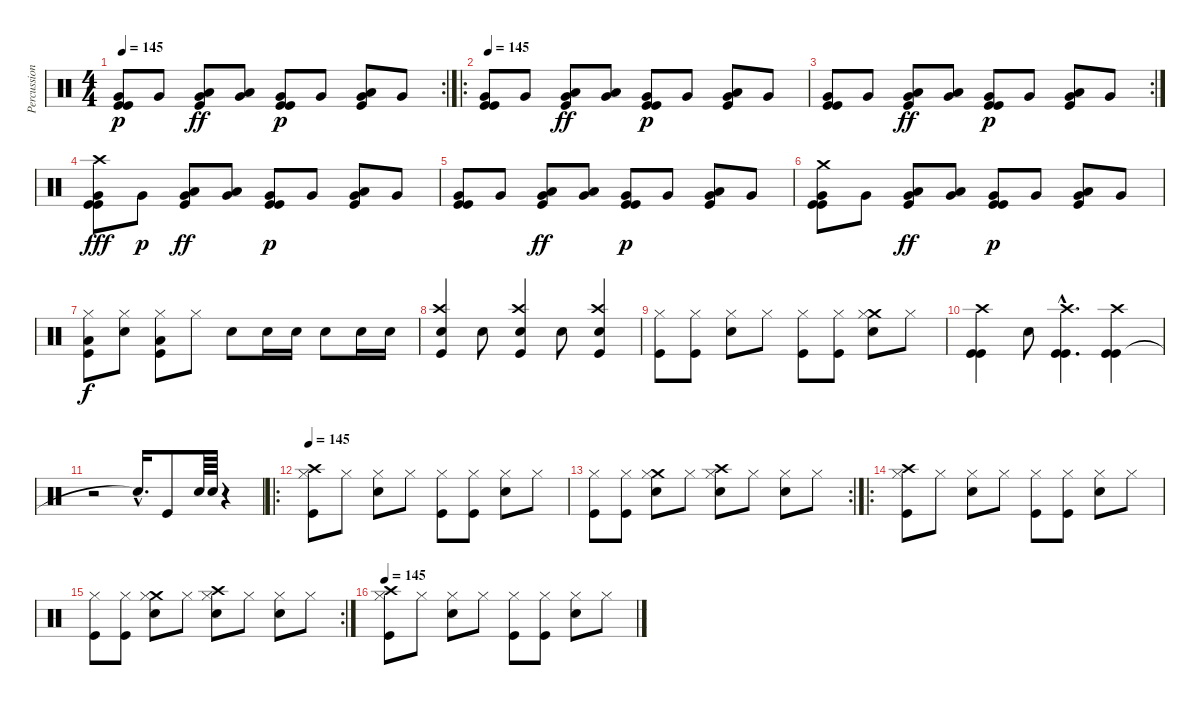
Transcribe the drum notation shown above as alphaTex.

\track ("Percussions" "Percussion") {instrument percussion}
\staff {score}
\articulation defaults
\rc 2
\ts (4 4)
\tempo 145
\clef neutral
\ks c
("Very Low Tom (hit)" "Kick (hit)" "Kick (hit)").8{dy p} "Very Low Tom (hit)".8 ("Very Low Tom (hit)" "Kick (hit)" "Low Tom (hit)").8{dy ff} ("Very Low Tom (hit)" "Low Tom (hit)").8 ("Very Low Tom (hit)" "Kick (hit)" "Kick (hit)").8{dy p} "Very Low Tom (hit)".8 ("Very Low Tom (hit)" "Kick (hit)" "Low Tom (hit)").8 "Very Low Tom (hit)".8 |
\ro
\tempo 145
("Very Low Tom (hit)" "Kick (hit)" "Kick (hit)").8 "Very Low Tom (hit)".8 ("Very Low Tom (hit)" "Kick (hit)" "Low Tom (hit)").8{dy ff} ("Very Low Tom (hit)" "Low Tom (hit)").8 ("Very Low Tom (hit)" "Kick (hit)" "Kick (hit)").8{dy p} "Very Low Tom (hit)".8 ("Very Low Tom (hit)" "Kick (hit)" "Low Tom (hit)").8 "Very Low Tom (hit)".8 |
\rc 2
("Very Low Tom (hit)" "Kick (hit)" "Kick (hit)").8 "Very Low Tom (hit)".8 ("Very Low Tom (hit)" "Kick (hit)" "Low Tom (hit)").8{dy ff} ("Very Low Tom (hit)" "Low Tom (hit)").8 ("Very Low Tom (hit)" "Kick (hit)" "Kick (hit)").8{dy p} "Very Low Tom (hit)".8 ("Very Low Tom (hit)" "Kick (hit)" "Low Tom (hit)").8 "Very Low Tom (hit)".8 |
("Very Low Tom (hit)" "Kick (hit)" "Kick (hit)" "Crash high (hit)").8{dy fff} "Very Low Tom (hit)".8{dy p} ("Very Low Tom (hit)" "Kick (hit)" "Low Tom (hit)").8{dy ff} ("Very Low Tom (hit)" "Low Tom (hit)").8 ("Very Low Tom (hit)" "Kick (hit)" "Kick (hit)").8{dy p} "Very Low Tom (hit)".8 ("Very Low Tom (hit)" "Kick (hit)" "Low Tom (hit)").8 "Very Low Tom (hit)".8 |
("Very Low Tom (hit)" "Kick (hit)" "Kick (hit)").8 "Very Low Tom (hit)".8 ("Very Low Tom (hit)" "Kick (hit)" "Low Tom (hit)").8{dy ff} ("Very Low Tom (hit)" "Low Tom (hit)").8 ("Very Low Tom (hit)" "Kick (hit)" "Kick (hit)").8{dy p} "Very Low Tom (hit)".8 ("Very Low Tom (hit)" "Kick (hit)" "Low Tom (hit)").8 "Very Low Tom (hit)".8 |
("Very Low Tom (hit)" "Kick (hit)" "Kick (hit)" "Crash medium (hit)").8 "Very Low Tom (hit)".8 ("Very Low Tom (hit)" "Kick (hit)" "Low Tom (hit)").8{dy ff} ("Very Low Tom (hit)" "Low Tom (hit)").8 ("Very Low Tom (hit)" "Kick (hit)" "Kick (hit)").8{dy p} "Very Low Tom (hit)".8 ("Very Low Tom (hit)" "Kick (hit)" "Low Tom (hit)").8 "Very Low Tom (hit)".8 |
("Kick (hit)" "Low Floor Tom (hit)" "Hi-Hat (closed)").8{dy f} ("Snare (hit) 2" "Hi-Hat (closed)").8 ("Kick (hit)" "Low Floor Tom (hit)" "Hi-Hat (closed)").8 "Hi-Hat (closed)".8 "Snare (hit) 2".8 "Snare (hit) 2".16 "Snare (hit) 2".16 "Snare (hit) 2".8 "Snare (hit) 2".16 "Snare (hit) 2".16 |
("Kick (hit)" "Snare (hit) 2" "Crash high (hit)").4 "Snare (hit) 2".8 ("Kick (hit)" "Snare (hit) 2" "Crash high (hit)").4 "Snare (hit) 2".8 ("Kick (hit)" "Snare (hit) 2" "Crash high (hit)").4 |
("Kick (hit)" "Hi-Hat (closed)").8 ("Kick (hit)" "Hi-Hat (closed)").8 ("Snare (hit) 2" "Hi-Hat (closed)").8 "Hi-Hat (closed)".8 ("Kick (hit)" "Hi-Hat (closed)").8 ("Kick (hit)" "Hi-Hat (closed)").8 ("Crash medium (hit)" "Snare (hit) 2" "Hi-Hat (closed)").8 "Hi-Hat (closed)".8 |
("Kick (hit)" "Kick (hit)" "Crash high (hit)").4 "Snare (hit) 2".8 ("Kick (hit)"{hac} "Crash high (hit)"{hac} "Kick (hit)"{hac}).4{d} ("Kick (hit)" "Crash high (hit)" "Kick (hit)").4 |
r.2 "Snare (hit)"{hac t}.16{d} "Kick (hit)".8 "Snare (hit) 2".64 "Snare (hit) 2".64 r.4 |
\ro
\tempo 145
("Crash high (hit)" "Kick (hit)" "Hi-Hat (closed)").8 "Hi-Hat (closed)".8 ("Snare (hit) 2" "Hi-Hat (closed)").8 "Hi-Hat (closed)".8 ("Kick (hit)" "Hi-Hat (closed)").8 ("Kick (hit)" "Hi-Hat (closed)").8 ("Snare (hit) 2" "Hi-Hat (closed)").8 "Hi-Hat (closed)".8 |
\rc 2
("Kick (hit)" "Hi-Hat (closed)").8 ("Kick (hit)" "Hi-Hat (closed)").8 ("Crash medium (hit)" "Snare (hit) 2" "Hi-Hat (closed)").8 "Hi-Hat (closed)".8 ("Crash high (hit)" "Snare (hit) 2" "Hi-Hat (closed)").8 "Hi-Hat (closed)".8 ("Snare (hit) 2" "Hi-Hat (closed)").8 "Hi-Hat (closed)".8 |
\ro
("Crash high (hit)" "Kick (hit)" "Hi-Hat (closed)").8 "Hi-Hat (closed)".8 ("Snare (hit) 2" "Hi-Hat (closed)").8 "Hi-Hat (closed)".8 ("Kick (hit)" "Hi-Hat (closed)").8 ("Kick (hit)" "Hi-Hat (closed)").8 ("Snare (hit) 2" "Hi-Hat (closed)").8 "Hi-Hat (closed)".8 |
\rc 2
("Kick (hit)" "Hi-Hat (closed)").8 ("Kick (hit)" "Hi-Hat (closed)").8 ("Crash medium (hit)" "Snare (hit) 2" "Hi-Hat (closed)").8 "Hi-Hat (closed)".8 ("Crash high (hit)" "Snare (hit) 2" "Hi-Hat (closed)").8 "Hi-Hat (closed)".8 ("Snare (hit) 2" "Hi-Hat (closed)").8 "Hi-Hat (closed)".8 |
\tempo 145
("Crash high (hit)" "Kick (hit)" "Hi-Hat (closed)").8 "Hi-Hat (closed)".8 ("Snare (hit) 2" "Hi-Hat (closed)").8 "Hi-Hat (closed)".8 ("Kick (hit)" "Hi-Hat (closed)").8 ("Kick (hit)" "Hi-Hat (closed)").8 ("Snare (hit) 2" "Hi-Hat (closed)").8 "Hi-Hat (closed)".8
